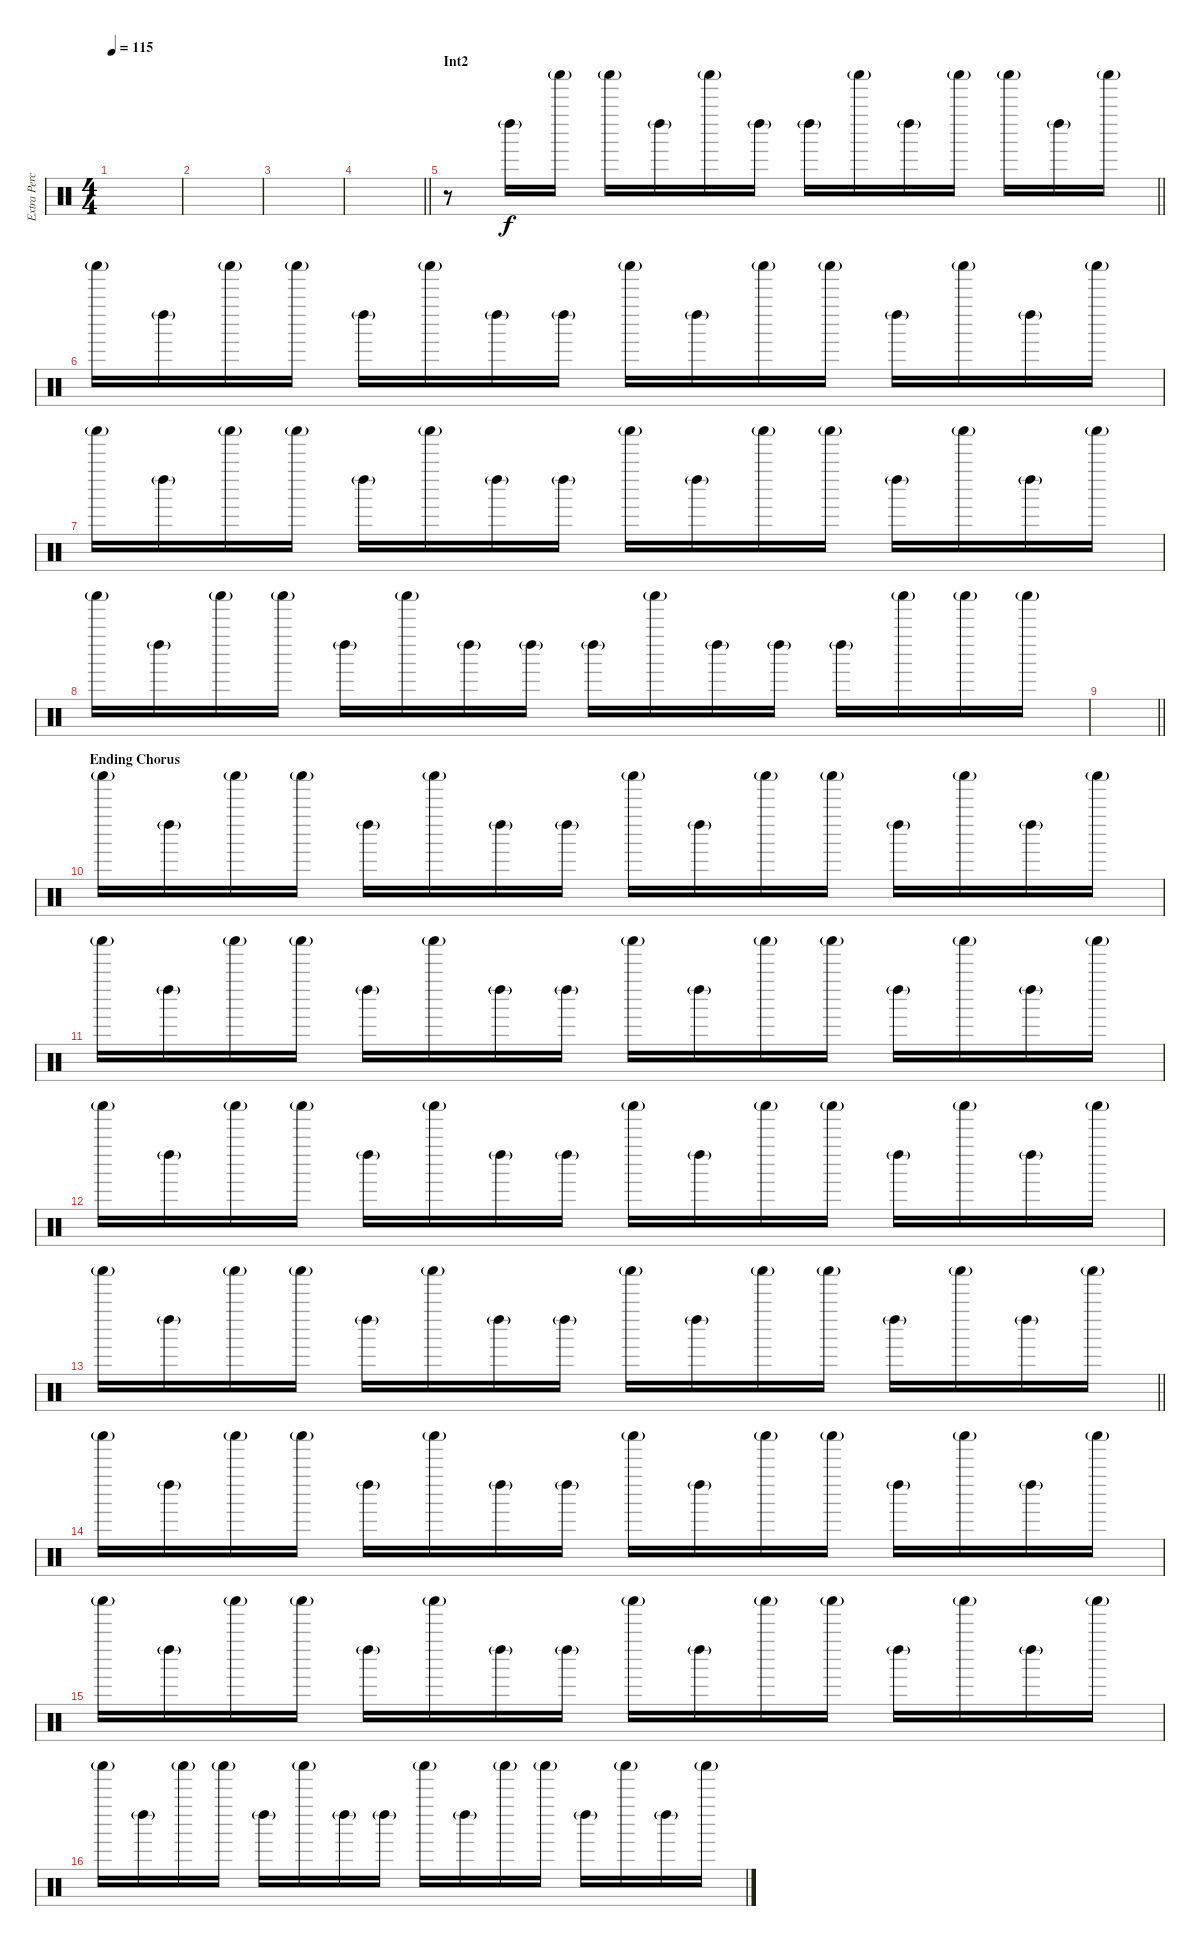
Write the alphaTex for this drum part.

\track ("Extra Percussion" "Extra Perc") {instrument percussion}
\staff {score}
\articulation defaults
\ts (4 4)
\tempo 115
\clef neutral
\ks c
|
|
|
\barLineRight lightlight
|
\section ("" "Int2")
\barLineRight lightlight
r.8{volume 2} "Left Maraca (hit)"{g}.16 "Shaker (hit)"{g}.16 "Shaker (hit)"{g}.16 "Left Maraca (hit)"{g}.16 "Shaker (hit)"{g}.16 "Left Maraca (hit)"{g}.16 "Left Maraca (hit)"{g}.16 "Shaker (hit)"{g}.16 "Left Maraca (hit)"{g}.16 "Shaker (hit)"{g}.16 "Shaker (hit)"{g}.16 "Left Maraca (hit)"{g}.16 "Shaker (hit)"{g}.16 |
\section ("" "")
"Shaker (hit)"{g}.16{volume 2} "Left Maraca (hit)"{g}.16 "Shaker (hit)"{g}.16 "Shaker (hit)"{g}.16 "Left Maraca (hit)"{g}.16 "Shaker (hit)"{g}.16 "Left Maraca (hit)"{g}.16 "Left Maraca (hit)"{g}.16 "Shaker (hit)"{g}.16 "Left Maraca (hit)"{g}.16 "Shaker (hit)"{g}.16 "Shaker (hit)"{g}.16 "Left Maraca (hit)"{g}.16 "Shaker (hit)"{g}.16 "Left Maraca (hit)"{g}.16 "Shaker (hit)"{g}.16 |
"Shaker (hit)"{g}.16{volume 2} "Left Maraca (hit)"{g}.16 "Shaker (hit)"{g}.16 "Shaker (hit)"{g}.16 "Left Maraca (hit)"{g}.16 "Shaker (hit)"{g}.16 "Left Maraca (hit)"{g}.16 "Left Maraca (hit)"{g}.16 "Shaker (hit)"{g}.16 "Left Maraca (hit)"{g}.16 "Shaker (hit)"{g}.16 "Shaker (hit)"{g}.16 "Left Maraca (hit)"{g}.16 "Shaker (hit)"{g}.16 "Left Maraca (hit)"{g}.16 "Shaker (hit)"{g}.16 |
"Shaker (hit)"{g}.16{volume 2} "Left Maraca (hit)"{g}.16 "Shaker (hit)"{g}.16 "Shaker (hit)"{g}.16 "Left Maraca (hit)"{g}.16 "Shaker (hit)"{g}.16 "Left Maraca (hit)"{g}.16 "Left Maraca (hit)"{g}.16 "Left Maraca (hit)"{g}.16 "Shaker (hit)"{g}.16 "Left Maraca (hit)"{g}.16 "Left Maraca (hit)"{g}.16 "Left Maraca (hit)"{g}.16 "Shaker (hit)"{g}.16 "Shaker (hit)"{g}.16 "Shaker (hit)"{g}.16 |
\barLineRight lightlight
|
\section ("" "Ending Chorus")
"Shaker (hit)"{g}.16{volume 2} "Left Maraca (hit)"{g}.16 "Shaker (hit)"{g}.16 "Shaker (hit)"{g}.16 "Left Maraca (hit)"{g}.16 "Shaker (hit)"{g}.16 "Left Maraca (hit)"{g}.16 "Left Maraca (hit)"{g}.16 "Shaker (hit)"{g}.16 "Left Maraca (hit)"{g}.16 "Shaker (hit)"{g}.16 "Shaker (hit)"{g}.16 "Left Maraca (hit)"{g}.16 "Shaker (hit)"{g}.16 "Left Maraca (hit)"{g}.16 "Shaker (hit)"{g}.16 |
"Shaker (hit)"{g}.16 "Left Maraca (hit)"{g}.16 "Shaker (hit)"{g}.16 "Shaker (hit)"{g}.16 "Left Maraca (hit)"{g}.16 "Shaker (hit)"{g}.16 "Left Maraca (hit)"{g}.16 "Left Maraca (hit)"{g}.16 "Shaker (hit)"{g}.16 "Left Maraca (hit)"{g}.16 "Shaker (hit)"{g}.16 "Shaker (hit)"{g}.16 "Left Maraca (hit)"{g}.16 "Shaker (hit)"{g}.16 "Left Maraca (hit)"{g}.16 "Shaker (hit)"{g}.16 |
"Shaker (hit)"{g}.16 "Left Maraca (hit)"{g}.16 "Shaker (hit)"{g}.16 "Shaker (hit)"{g}.16 "Left Maraca (hit)"{g}.16 "Shaker (hit)"{g}.16 "Left Maraca (hit)"{g}.16 "Left Maraca (hit)"{g}.16 "Shaker (hit)"{g}.16 "Left Maraca (hit)"{g}.16 "Shaker (hit)"{g}.16 "Shaker (hit)"{g}.16 "Left Maraca (hit)"{g}.16 "Shaker (hit)"{g}.16 "Left Maraca (hit)"{g}.16 "Shaker (hit)"{g}.16 |
\barLineRight lightlight "Shaker (hit)"{g}.16 "Left Maraca (hit)"{g}.16 "Shaker (hit)"{g}.16 "Shaker (hit)"{g}.16 "Left Maraca (hit)"{g}.16 "Shaker (hit)"{g}.16 "Left Maraca (hit)"{g}.16 "Left Maraca (hit)"{g}.16 "Shaker (hit)"{g}.16 "Left Maraca (hit)"{g}.16 "Shaker (hit)"{g}.16 "Shaker (hit)"{g}.16 "Left Maraca (hit)"{g}.16 "Shaker (hit)"{g}.16 "Left Maraca (hit)"{g}.16 "Shaker (hit)"{g}.16
|
"Shaker (hit)"{g}.16 "Left Maraca (hit)"{g}.16 "Shaker (hit)"{g}.16 "Shaker (hit)"{g}.16 "Left Maraca (hit)"{g}.16 "Shaker (hit)"{g}.16 "Left Maraca (hit)"{g}.16 "Left Maraca (hit)"{g}.16 "Shaker (hit)"{g}.16 "Left Maraca (hit)"{g}.16 "Shaker (hit)"{g}.16 "Shaker (hit)"{g}.16 "Left Maraca (hit)"{g}.16 "Shaker (hit)"{g}.16 "Left Maraca (hit)"{g}.16 "Shaker (hit)"{g}.16 |
"Shaker (hit)"{g}.16 "Left Maraca (hit)"{g}.16 "Shaker (hit)"{g}.16 "Shaker (hit)"{g}.16 "Left Maraca (hit)"{g}.16 "Shaker (hit)"{g}.16 "Left Maraca (hit)"{g}.16 "Left Maraca (hit)"{g}.16 "Shaker (hit)"{g}.16 "Left Maraca (hit)"{g}.16 "Shaker (hit)"{g}.16 "Shaker (hit)"{g}.16 "Left Maraca (hit)"{g}.16 "Shaker (hit)"{g}.16 "Left Maraca (hit)"{g}.16 "Shaker (hit)"{g}.16 |
"Shaker (hit)"{g}.16 "Left Maraca (hit)"{g}.16 "Shaker (hit)"{g}.16 "Shaker (hit)"{g}.16 "Left Maraca (hit)"{g}.16 "Shaker (hit)"{g}.16 "Left Maraca (hit)"{g}.16 "Left Maraca (hit)"{g}.16 "Shaker (hit)"{g}.16 "Left Maraca (hit)"{g}.16 "Shaker (hit)"{g}.16 "Shaker (hit)"{g}.16 "Left Maraca (hit)"{g}.16 "Shaker (hit)"{g}.16 "Left Maraca (hit)"{g}.16 "Shaker (hit)"{g}.16
